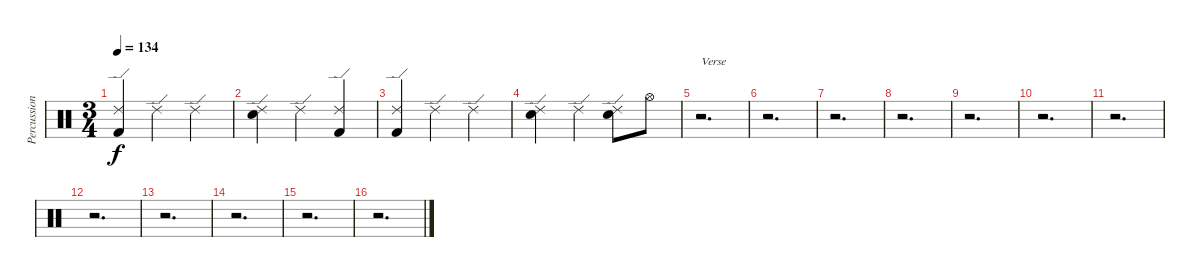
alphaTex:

\track ("Percussion" "Percussion") {instrument percussion}
\staff {score}
\articulation defaults
\ts (3 4)
\tempo 134
\clef neutral
\ks c
("Kick (hit) 2" "Ride (edge) 2").4{dy f} "Ride (edge) 2".4 "Ride (edge) 2".4 |
("Snare (hit) 2" "Ride (edge) 2").4 "Ride (edge) 2".4 ("Kick (hit) 2" "Ride (edge) 2").4 |
("Kick (hit) 2" "Ride (edge) 2").4 "Ride (edge) 2".4 "Ride (edge) 2".4 |
("Snare (hit) 2" "Ride (edge) 2").4 "Ride (edge) 2".4 ("Snare (hit) 2" "Ride (edge) 2").8 "Hi-Hat (open)".8 |
r.2{d txt "Verse"} |
r.2{d} |
r.2{d} |
r.2{d} |
r.2{d} |
r.2{d} |
r.2{d} |
r.2{d} |
r.2{d} |
r.2{d} |
r.2{d} |
r.2{d}
